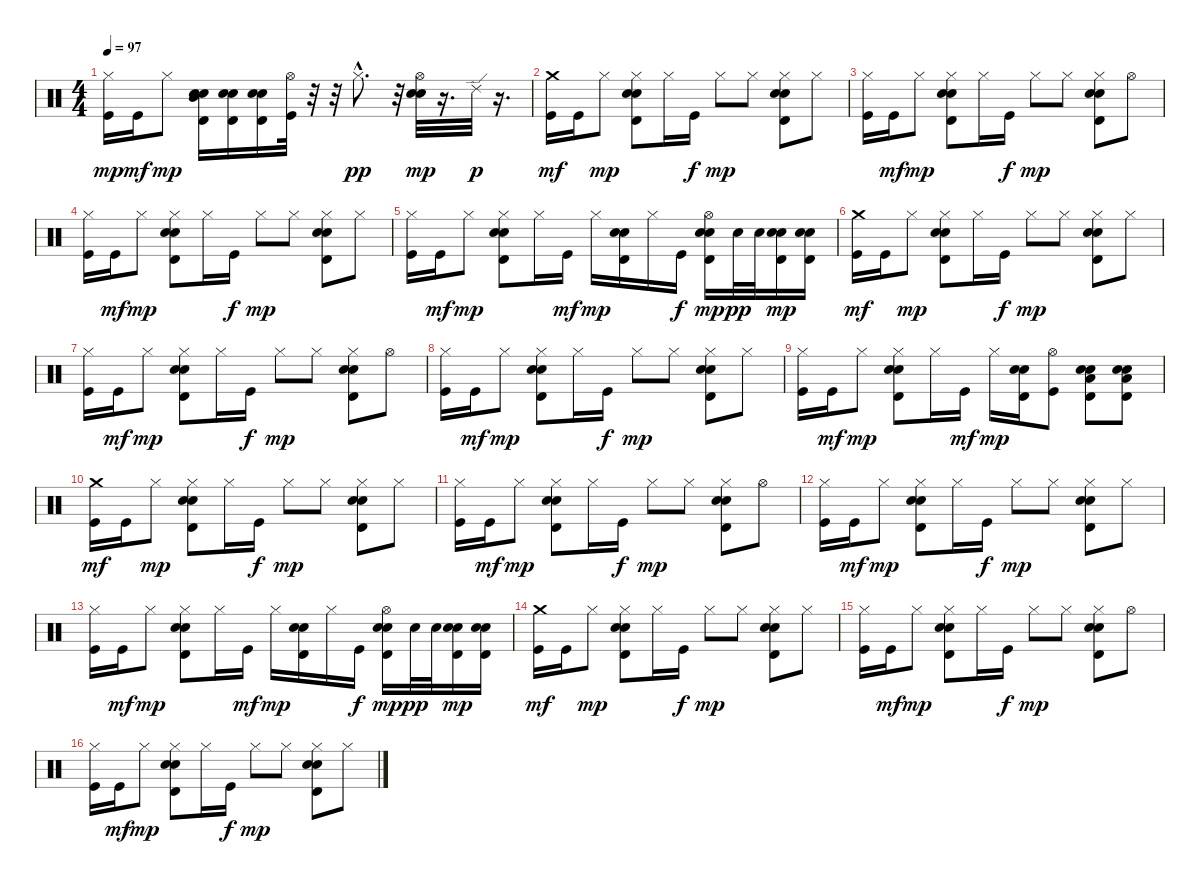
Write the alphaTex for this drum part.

\track "" {instrument percussion}
\staff {score}
\articulation defaults
\ts (4 4)
\tempo 97
\clef neutral
\ks c
("Kick (hit)" "Hi-Hat (closed)").16{dy mp} "Kick (hit)".16{dy mf} "Hi-Hat (closed)".8{dy mp} ("Mid Tom (hit)" "Snare (hit) 2" "Electric Snare (hit)" "Timbale high (hit)").16 ("Snare (hit) 2" "Electric Snare (hit)" "Timbale high (hit)").16 ("Snare (hit) 2" "Electric Snare (hit)" "Timbale high (hit)").16 ("Kick (hit)" "Hi-Hat (open)").32 r.32 r.32 "Hi-Hat (closed)"{hac}.8{d dy pp} r.32 ("Snare (hit) 2" "Electric Snare (hit)" "Hi-Hat (open)").32{dy mp} r.16{d} "Ride (edge) 2".32{dy p} r.16{d} |
\section ("" "")
("Kick (hit)" "Crash medium (hit)").16{dy mf} "Kick (hit)".16 "Hi-Hat (closed)".8{dy mp} ("Snare (hit) 2" "Electric Snare (hit)" "Timbale high (hit)" "Hi-Hat (closed)").8 "Hi-Hat (closed)".16 "Kick (hit)".16{dy f} "Hi-Hat (closed)".8{dy mp} "Hi-Hat (closed)".8 ("Snare (hit) 2" "Electric Snare (hit)" "Timbale high (hit)" "Hi-Hat (closed)").8 "Hi-Hat (closed)".8 |
("Kick (hit)" "Hi-Hat (closed)").16 "Kick (hit)".16{dy mf} "Hi-Hat (closed)".8{dy mp} ("Snare (hit) 2" "Electric Snare (hit)" "Timbale high (hit)" "Hi-Hat (closed)").8 "Hi-Hat (closed)".16 "Kick (hit)".16{dy f} "Hi-Hat (closed)".8{dy mp} "Hi-Hat (closed)".8 ("Snare (hit) 2" "Electric Snare (hit)" "Timbale high (hit)" "Hi-Hat (closed)").8 "Hi-Hat (open)".8 |
("Kick (hit)" "Hi-Hat (closed)").16 "Kick (hit)".16{dy mf} "Hi-Hat (closed)".8{dy mp} ("Snare (hit) 2" "Electric Snare (hit)" "Timbale high (hit)" "Hi-Hat (closed)").8 "Hi-Hat (closed)".16 "Kick (hit)".16{dy f} "Hi-Hat (closed)".8{dy mp} "Hi-Hat (closed)".8 ("Snare (hit) 2" "Electric Snare (hit)" "Timbale high (hit)" "Hi-Hat (closed)").8 "Hi-Hat (closed)".8 |
("Kick (hit)" "Hi-Hat (closed)").16 "Kick (hit)".16{dy mf} "Hi-Hat (closed)".8{dy mp} ("Snare (hit) 2" "Electric Snare (hit)" "Timbale high (hit)" "Hi-Hat (closed)").8 "Hi-Hat (closed)".16 "Kick (hit)".16{dy mf} "Hi-Hat (closed)".16{dy mp} ("Snare (hit) 2" "Electric Snare (hit)" "Timbale high (hit)").16 "Hi-Hat (closed)".16 "Kick (hit)".16{dy f} ("Snare (hit) 2" "Electric Snare (hit)" "Timbale high (hit)" "Hi-Hat (open)").16{dy mp} "Snare (hit) 2".32{dy pp} "Snare (hit) 2".32 ("Snare (hit) 2" "Electric Snare (hit)" "Timbale high (hit)").16{dy mp} ("Snare (hit) 2" "Electric Snare (hit)" "Timbale high (hit)").16 |
\section ("" "")
("Kick (hit)" "Crash medium (hit)").16{dy mf} "Kick (hit)".16 "Hi-Hat (closed)".8{dy mp} ("Snare (hit) 2" "Electric Snare (hit)" "Timbale high (hit)" "Hi-Hat (closed)").8 "Hi-Hat (closed)".16 "Kick (hit)".16{dy f} "Hi-Hat (closed)".8{dy mp} "Hi-Hat (closed)".8 ("Snare (hit) 2" "Electric Snare (hit)" "Timbale high (hit)" "Hi-Hat (closed)").8 "Hi-Hat (closed)".8 |
("Kick (hit)" "Hi-Hat (closed)").16 "Kick (hit)".16{dy mf} "Hi-Hat (closed)".8{dy mp} ("Snare (hit) 2" "Electric Snare (hit)" "Timbale high (hit)" "Hi-Hat (closed)").8 "Hi-Hat (closed)".16 "Kick (hit)".16{dy f} "Hi-Hat (closed)".8{dy mp} "Hi-Hat (closed)".8 ("Snare (hit) 2" "Electric Snare (hit)" "Timbale high (hit)" "Hi-Hat (closed)").8 "Hi-Hat (open)".8 |
("Kick (hit)" "Hi-Hat (closed)").16 "Kick (hit)".16{dy mf} "Hi-Hat (closed)".8{dy mp} ("Snare (hit) 2" "Electric Snare (hit)" "Timbale high (hit)" "Hi-Hat (closed)").8 "Hi-Hat (closed)".16 "Kick (hit)".16{dy f} "Hi-Hat (closed)".8{dy mp} "Hi-Hat (closed)".8 ("Snare (hit) 2" "Electric Snare (hit)" "Timbale high (hit)" "Hi-Hat (closed)").8 "Hi-Hat (closed)".8 |
("Kick (hit)" "Hi-Hat (closed)").16 "Kick (hit)".16{dy mf} "Hi-Hat (closed)".8{dy mp} ("Snare (hit) 2" "Electric Snare (hit)" "Timbale high (hit)" "Hi-Hat (closed)").8 "Hi-Hat (closed)".16 "Kick (hit)".16{dy mf} "Hi-Hat (closed)".16{dy mp} ("Snare (hit) 2" "Electric Snare (hit)" "Timbale high (hit)").16 ("Kick (hit)" "Hi-Hat (open)").8 ("Low Tom (hit)" "Snare (hit) 2" "Electric Snare (hit)" "Timbale high (hit)").8 ("Low Tom (hit)" "Snare (hit) 2" "Electric Snare (hit)" "Timbale high (hit)").8 |
\section ("" "")
("Kick (hit)" "Crash medium (hit)").16{dy mf} "Kick (hit)".16 "Hi-Hat (closed)".8{dy mp} ("Snare (hit) 2" "Electric Snare (hit)" "Timbale high (hit)" "Hi-Hat (closed)").8 "Hi-Hat (closed)".16 "Kick (hit)".16{dy f} "Hi-Hat (closed)".8{dy mp} "Hi-Hat (closed)".8 ("Snare (hit) 2" "Electric Snare (hit)" "Timbale high (hit)" "Hi-Hat (closed)").8 "Hi-Hat (closed)".8 |
("Kick (hit)" "Hi-Hat (closed)").16 "Kick (hit)".16{dy mf} "Hi-Hat (closed)".8{dy mp} ("Snare (hit) 2" "Electric Snare (hit)" "Timbale high (hit)" "Hi-Hat (closed)").8 "Hi-Hat (closed)".16 "Kick (hit)".16{dy f} "Hi-Hat (closed)".8{dy mp} "Hi-Hat (closed)".8 ("Snare (hit) 2" "Electric Snare (hit)" "Timbale high (hit)" "Hi-Hat (closed)").8 "Hi-Hat (open)".8 |
("Kick (hit)" "Hi-Hat (closed)").16 "Kick (hit)".16{dy mf} "Hi-Hat (closed)".8{dy mp} ("Snare (hit) 2" "Electric Snare (hit)" "Timbale high (hit)" "Hi-Hat (closed)").8 "Hi-Hat (closed)".16 "Kick (hit)".16{dy f} "Hi-Hat (closed)".8{dy mp} "Hi-Hat (closed)".8 ("Snare (hit) 2" "Electric Snare (hit)" "Timbale high (hit)" "Hi-Hat (closed)").8 "Hi-Hat (closed)".8 |
("Kick (hit)" "Hi-Hat (closed)").16 "Kick (hit)".16{dy mf} "Hi-Hat (closed)".8{dy mp} ("Snare (hit) 2" "Electric Snare (hit)" "Timbale high (hit)" "Hi-Hat (closed)").8 "Hi-Hat (closed)".16 "Kick (hit)".16{dy mf} "Hi-Hat (closed)".16{dy mp} ("Snare (hit) 2" "Electric Snare (hit)" "Timbale high (hit)").16 "Hi-Hat (closed)".16 "Kick (hit)".16{dy f} ("Snare (hit) 2" "Electric Snare (hit)" "Timbale high (hit)" "Hi-Hat (open)").16{dy mp} "Snare (hit) 2".32{dy pp} "Snare (hit) 2".32 ("Snare (hit) 2" "Electric Snare (hit)" "Timbale high (hit)").16{dy mp} ("Snare (hit) 2" "Electric Snare (hit)" "Timbale high (hit)").16 |
\section ("" "")
("Kick (hit)" "Crash medium (hit)").16{dy mf} "Kick (hit)".16 "Hi-Hat (closed)".8{dy mp} ("Snare (hit) 2" "Electric Snare (hit)" "Timbale high (hit)" "Hi-Hat (closed)").8 "Hi-Hat (closed)".16 "Kick (hit)".16{dy f} "Hi-Hat (closed)".8{dy mp} "Hi-Hat (closed)".8 ("Snare (hit) 2" "Electric Snare (hit)" "Timbale high (hit)" "Hi-Hat (closed)").8 "Hi-Hat (closed)".8 |
("Kick (hit)" "Hi-Hat (closed)").16 "Kick (hit)".16{dy mf} "Hi-Hat (closed)".8{dy mp} ("Snare (hit) 2" "Electric Snare (hit)" "Timbale high (hit)" "Hi-Hat (closed)").8 "Hi-Hat (closed)".16 "Kick (hit)".16{dy f} "Hi-Hat (closed)".8{dy mp} "Hi-Hat (closed)".8 ("Snare (hit) 2" "Electric Snare (hit)" "Timbale high (hit)" "Hi-Hat (closed)").8 "Hi-Hat (open)".8 |
("Kick (hit)" "Hi-Hat (closed)").16 "Kick (hit)".16{dy mf} "Hi-Hat (closed)".8{dy mp} ("Snare (hit) 2" "Electric Snare (hit)" "Timbale high (hit)" "Hi-Hat (closed)").8 "Hi-Hat (closed)".16 "Kick (hit)".16{dy f} "Hi-Hat (closed)".8{dy mp} "Hi-Hat (closed)".8 ("Snare (hit) 2" "Electric Snare (hit)" "Timbale high (hit)" "Hi-Hat (closed)").8 "Hi-Hat (closed)".8
